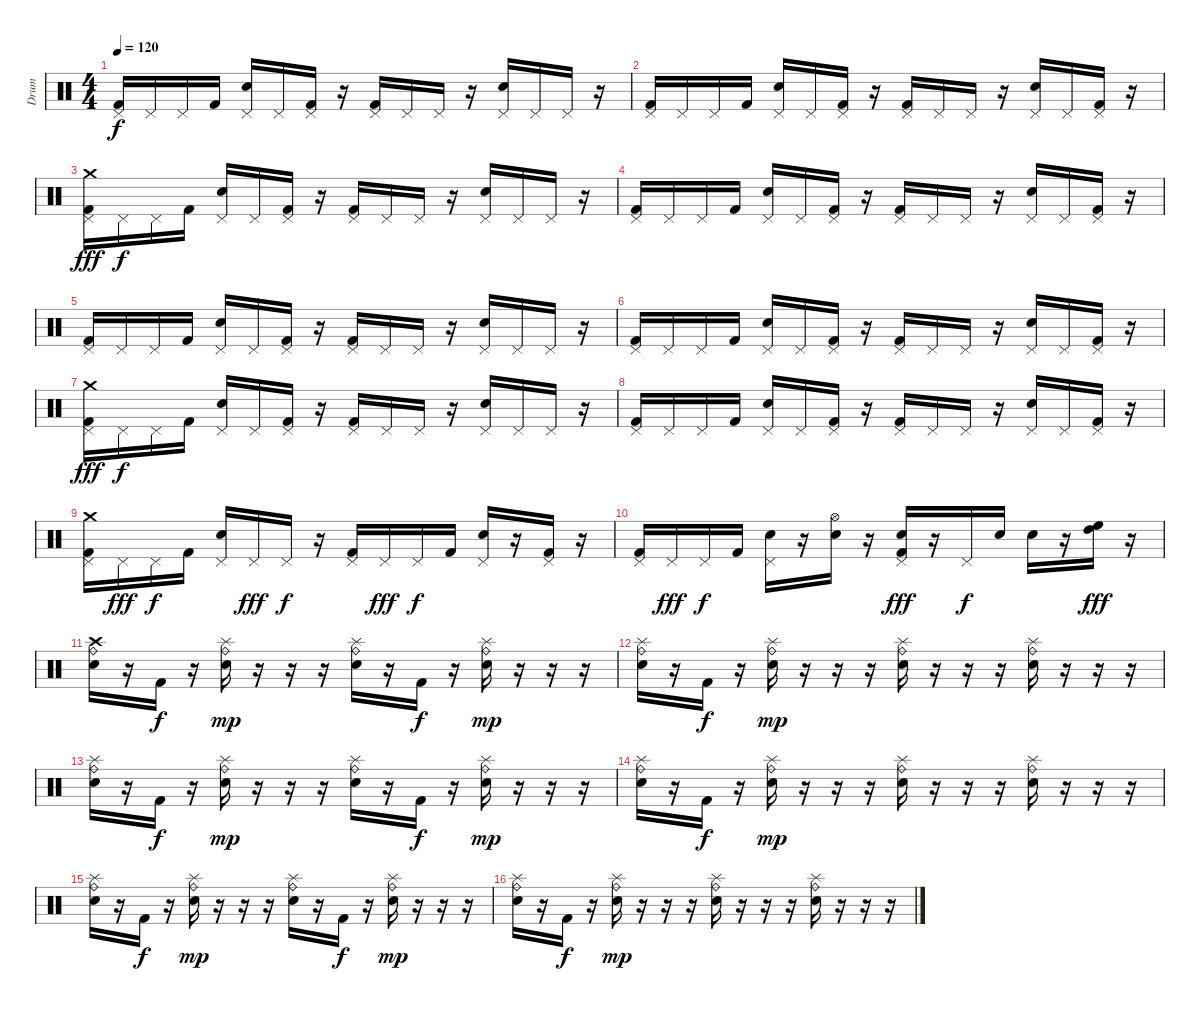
\track ("Drum" "Drum") {instrument percussion}
\staff {score}
\articulation defaults
\ts (4 4)
\tempo 120
\clef neutral
\ks c
("Pedal Hi-Hat (hit)" "Kick (hit) 2").16{dy f} "Pedal Hi-Hat (hit)".16 "Pedal Hi-Hat (hit)".16 "Kick (hit) 2".16 ("Pedal Hi-Hat (hit)" "Snare (hit) 2").16 "Pedal Hi-Hat (hit)".16 ("Pedal Hi-Hat (hit)" "Kick (hit) 2").16 r.16 ("Pedal Hi-Hat (hit)" "Kick (hit) 2").16 "Pedal Hi-Hat (hit)".16 "Pedal Hi-Hat (hit)".16 r.16 ("Pedal Hi-Hat (hit)" "Snare (hit) 2").16 "Pedal Hi-Hat (hit)".16 "Pedal Hi-Hat (hit)".16 r.16 |
("Pedal Hi-Hat (hit)" "Kick (hit) 2").16 "Pedal Hi-Hat (hit)".16 "Pedal Hi-Hat (hit)".16 "Kick (hit) 2".16 ("Pedal Hi-Hat (hit)" "Snare (hit) 2").16 "Pedal Hi-Hat (hit)".16 ("Pedal Hi-Hat (hit)" "Kick (hit) 2").16 r.16 ("Pedal Hi-Hat (hit)" "Kick (hit) 2").16 "Pedal Hi-Hat (hit)".16 "Pedal Hi-Hat (hit)".16 r.16 ("Pedal Hi-Hat (hit)" "Snare (hit) 2").16 "Pedal Hi-Hat (hit)".16 ("Pedal Hi-Hat (hit)" "Kick (hit) 2").16 r.16 |
("Crash medium (hit)" "Pedal Hi-Hat (hit)" "Kick (hit) 2").16{dy fff} "Pedal Hi-Hat (hit)".16{dy f} "Pedal Hi-Hat (hit)".16 "Kick (hit) 2".16 ("Pedal Hi-Hat (hit)" "Snare (hit) 2").16 "Pedal Hi-Hat (hit)".16 ("Pedal Hi-Hat (hit)" "Kick (hit) 2").16 r.16 ("Pedal Hi-Hat (hit)" "Kick (hit) 2").16 "Pedal Hi-Hat (hit)".16 "Pedal Hi-Hat (hit)".16 r.16 ("Pedal Hi-Hat (hit)" "Snare (hit) 2").16 "Pedal Hi-Hat (hit)".16 "Pedal Hi-Hat (hit)".16 r.16 |
("Pedal Hi-Hat (hit)" "Kick (hit) 2").16 "Pedal Hi-Hat (hit)".16 "Pedal Hi-Hat (hit)".16 "Kick (hit) 2".16 ("Pedal Hi-Hat (hit)" "Snare (hit) 2").16 "Pedal Hi-Hat (hit)".16 ("Pedal Hi-Hat (hit)" "Kick (hit) 2").16 r.16 ("Pedal Hi-Hat (hit)" "Kick (hit) 2").16 "Pedal Hi-Hat (hit)".16 "Pedal Hi-Hat (hit)".16 r.16 ("Pedal Hi-Hat (hit)" "Snare (hit) 2").16 "Pedal Hi-Hat (hit)".16 ("Pedal Hi-Hat (hit)" "Kick (hit) 2").16 r.16 |
("Pedal Hi-Hat (hit)" "Kick (hit) 2").16 "Pedal Hi-Hat (hit)".16 "Pedal Hi-Hat (hit)".16 "Kick (hit) 2".16 ("Pedal Hi-Hat (hit)" "Snare (hit) 2").16 "Pedal Hi-Hat (hit)".16 ("Pedal Hi-Hat (hit)" "Kick (hit) 2").16 r.16 ("Pedal Hi-Hat (hit)" "Kick (hit) 2").16 "Pedal Hi-Hat (hit)".16 "Pedal Hi-Hat (hit)".16 r.16 ("Pedal Hi-Hat (hit)" "Snare (hit) 2").16 "Pedal Hi-Hat (hit)".16 "Pedal Hi-Hat (hit)".16 r.16 |
("Pedal Hi-Hat (hit)" "Kick (hit) 2").16 "Pedal Hi-Hat (hit)".16 "Pedal Hi-Hat (hit)".16 "Kick (hit) 2".16 ("Pedal Hi-Hat (hit)" "Snare (hit) 2").16 "Pedal Hi-Hat (hit)".16 ("Pedal Hi-Hat (hit)" "Kick (hit) 2").16 r.16 ("Pedal Hi-Hat (hit)" "Kick (hit) 2").16 "Pedal Hi-Hat (hit)".16 "Pedal Hi-Hat (hit)".16 r.16 ("Pedal Hi-Hat (hit)" "Snare (hit) 2").16 "Pedal Hi-Hat (hit)".16 ("Pedal Hi-Hat (hit)" "Kick (hit) 2").16 r.16 |
("Crash medium (hit)" "Pedal Hi-Hat (hit)" "Kick (hit) 2").16{dy fff} "Pedal Hi-Hat (hit)".16{dy f} "Pedal Hi-Hat (hit)".16 "Kick (hit) 2".16 ("Pedal Hi-Hat (hit)" "Snare (hit) 2").16 "Pedal Hi-Hat (hit)".16 ("Pedal Hi-Hat (hit)" "Kick (hit) 2").16 r.16 ("Pedal Hi-Hat (hit)" "Kick (hit) 2").16 "Pedal Hi-Hat (hit)".16 "Pedal Hi-Hat (hit)".16 r.16 ("Pedal Hi-Hat (hit)" "Snare (hit) 2").16 "Pedal Hi-Hat (hit)".16 "Pedal Hi-Hat (hit)".16 r.16 |
("Pedal Hi-Hat (hit)" "Kick (hit) 2").16 "Pedal Hi-Hat (hit)".16 "Pedal Hi-Hat (hit)".16 "Kick (hit) 2".16 ("Pedal Hi-Hat (hit)" "Snare (hit) 2").16 "Pedal Hi-Hat (hit)".16 ("Pedal Hi-Hat (hit)" "Kick (hit) 2").16 r.16 ("Pedal Hi-Hat (hit)" "Kick (hit) 2").16 "Pedal Hi-Hat (hit)".16 "Pedal Hi-Hat (hit)".16 r.16 ("Pedal Hi-Hat (hit)" "Snare (hit) 2").16 "Pedal Hi-Hat (hit)".16 ("Pedal Hi-Hat (hit)" "Kick (hit) 2").16 r.16 |
("Crash medium (hit)" "Pedal Hi-Hat (hit)" "Kick (hit) 2").16 "Pedal Hi-Hat (hit)".16{dy fff} "Pedal Hi-Hat (hit)".16{dy f} "Kick (hit) 2".16 ("Pedal Hi-Hat (hit)" "Snare (hit) 2").16 "Pedal Hi-Hat (hit)".16{dy fff} "Pedal Hi-Hat (hit)".16{dy f} r.16 ("Pedal Hi-Hat (hit)" "Kick (hit) 2").16 "Pedal Hi-Hat (hit)".16{dy fff} "Pedal Hi-Hat (hit)".16{dy f} "Kick (hit) 2".16 ("Pedal Hi-Hat (hit)" "Snare (hit) 2").16 r.16 ("Pedal Hi-Hat (hit)" "Kick (hit) 2").16 r.16 |
("Pedal Hi-Hat (hit)" "Kick (hit) 2").16 "Pedal Hi-Hat (hit)".16{dy fff} "Pedal Hi-Hat (hit)".16{dy f} "Kick (hit) 2".16 ("Pedal Hi-Hat (hit)" "Snare (hit) 2").16 r.16 ("Hi-Hat (open)" "Snare (hit) 2").16 r.16 ("Pedal Hi-Hat (hit)" "Snare (hit) 2" "Kick (hit) 2").16{dy fff} r.16 "Pedal Hi-Hat (hit)".16{dy f} "Snare (hit) 2".16 "Snare (hit) 2".16 r.16 ("High Floor Tom (hit)" "High Tom (hit)").16{dy fff} r.16 |
("Crash high (hit)" "Ride (bell)" "Snare (hit) 2").16 r.16 "Kick (hit) 2".16{dy f} r.16 ("Ride (bell)" "Splash (hit)" "Snare (hit) 2").16{dy mp} r.16 r.16 r.16 ("Ride (bell)" "Splash (hit)" "Snare (hit) 2").16 r.16 "Kick (hit) 2".16{dy f} r.16 ("Ride (bell)" "Splash (hit)" "Snare (hit) 2").16{dy mp} r.16 r.16 r.16 |
("Ride (bell)" "Splash (hit)" "Snare (hit) 2").16 r.16 "Kick (hit) 2".16{dy f} r.16 ("Ride (bell)" "Splash (hit)" "Snare (hit) 2").16{dy mp} r.16 r.16 r.16 ("Ride (bell)" "Splash (hit)" "Snare (hit) 2").16 r.16 r.16 r.16 ("Ride (bell)" "Splash (hit)" "Snare (hit) 2").16 r.16 r.16 r.16 |
("Ride (bell)" "Splash (hit)" "Snare (hit) 2").16 r.16 "Kick (hit) 2".16{dy f} r.16 ("Ride (bell)" "Splash (hit)" "Snare (hit) 2").16{dy mp} r.16 r.16 r.16 ("Ride (bell)" "Splash (hit)" "Snare (hit) 2").16 r.16 "Kick (hit) 2".16{dy f} r.16 ("Ride (bell)" "Splash (hit)" "Snare (hit) 2").16{dy mp} r.16 r.16 r.16 |
("Ride (bell)" "Splash (hit)" "Snare (hit) 2").16 r.16 "Kick (hit) 2".16{dy f} r.16 ("Ride (bell)" "Splash (hit)" "Snare (hit) 2").16{dy mp} r.16 r.16 r.16 ("Ride (bell)" "Splash (hit)" "Snare (hit) 2").16 r.16 r.16 r.16 ("Ride (bell)" "Splash (hit)" "Snare (hit) 2").16 r.16 r.16 r.16 |
("Ride (bell)" "Splash (hit)" "Snare (hit) 2").16 r.16 "Kick (hit) 2".16{dy f} r.16 ("Ride (bell)" "Splash (hit)" "Snare (hit) 2").16{dy mp} r.16 r.16 r.16 ("Ride (bell)" "Splash (hit)" "Snare (hit) 2").16 r.16 "Kick (hit) 2".16{dy f} r.16 ("Ride (bell)" "Splash (hit)" "Snare (hit) 2").16{dy mp} r.16 r.16 r.16 |
("Ride (bell)" "Splash (hit)" "Snare (hit) 2").16 r.16 "Kick (hit) 2".16{dy f} r.16 ("Ride (bell)" "Splash (hit)" "Snare (hit) 2").16{dy mp} r.16 r.16 r.16 ("Ride (bell)" "Splash (hit)" "Snare (hit) 2").16 r.16 r.16 r.16 ("Ride (bell)" "Splash (hit)" "Snare (hit) 2").16 r.16 r.16 r.16
